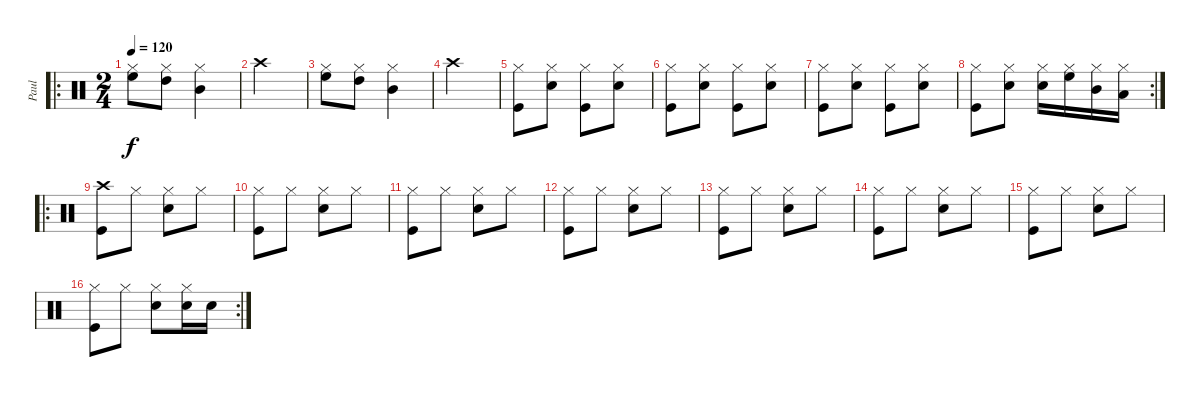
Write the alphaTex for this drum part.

\track ("Paul" "Paul") {instrument percussion}
\staff {score}
\articulation defaults
\ro
\ts (2 4)
\tempo 120
\clef neutral
\ks c
("Hi-Hat (closed)" "High Floor Tom (hit)").8{dy f} ("Hi-Hat (closed)" "High Tom (hit)").8 ("Hi-Hat (closed)" "Mid Tom (hit)").4 |
"Crash high (hit)".2 |
("Hi-Hat (closed)" "High Floor Tom (hit)").8 ("Hi-Hat (closed)" "High Tom (hit)").8 ("Hi-Hat (closed)" "Mid Tom (hit)").4 |
"Crash high (hit)".2 |
("Hi-Hat (closed)" "Kick (hit)").8 ("Hi-Hat (closed)" "Snare (hit) 2").8 ("Hi-Hat (closed)" "Kick (hit)").8 ("Hi-Hat (closed)" "Snare (hit) 2").8 |
("Hi-Hat (closed)" "Kick (hit)").8 ("Hi-Hat (closed)" "Snare (hit) 2").8 ("Hi-Hat (closed)" "Kick (hit)").8 ("Hi-Hat (closed)" "Snare (hit) 2").8 |
("Hi-Hat (closed)" "Kick (hit)").8 ("Hi-Hat (closed)" "Snare (hit) 2").8 ("Hi-Hat (closed)" "Kick (hit)").8 ("Hi-Hat (closed)" "Snare (hit) 2").8 |
\rc 2
("Hi-Hat (closed)" "Kick (hit)").8 ("Hi-Hat (closed)" "Snare (hit) 2").8 ("Hi-Hat (closed)" "Snare (hit) 2").16 ("Hi-Hat (closed)" "High Floor Tom (hit)").16 ("Hi-Hat (closed)" "Mid Tom (hit)").16 ("Hi-Hat (closed)" "Low Tom (hit)").16 |
\ro
("Crash high (hit)" "Kick (hit)").8 "Hi-Hat (closed)".8 ("Hi-Hat (closed)" "Snare (hit) 2").8 "Hi-Hat (closed)".8 |
("Hi-Hat (closed)" "Kick (hit)").8 "Hi-Hat (closed)".8 ("Hi-Hat (closed)" "Snare (hit) 2").8 "Hi-Hat (closed)".8 |
("Hi-Hat (closed)" "Kick (hit)").8 "Hi-Hat (closed)".8 ("Hi-Hat (closed)" "Snare (hit) 2").8 "Hi-Hat (closed)".8 |
("Hi-Hat (closed)" "Kick (hit)").8 "Hi-Hat (closed)".8 ("Hi-Hat (closed)" "Snare (hit) 2").8 "Hi-Hat (closed)".8 |
("Hi-Hat (closed)" "Kick (hit)").8 "Hi-Hat (closed)".8 ("Hi-Hat (closed)" "Snare (hit) 2").8 "Hi-Hat (closed)".8 |
("Hi-Hat (closed)" "Kick (hit)").8 "Hi-Hat (closed)".8 ("Hi-Hat (closed)" "Snare (hit) 2").8 "Hi-Hat (closed)".8 |
("Hi-Hat (closed)" "Kick (hit)").8 "Hi-Hat (closed)".8 ("Hi-Hat (closed)" "Snare (hit) 2").8 "Hi-Hat (closed)".8 |
\rc 2
("Hi-Hat (closed)" "Kick (hit)").8 "Hi-Hat (closed)".8 ("Hi-Hat (closed)" "Snare (hit) 2").8 ("Hi-Hat (closed)" "Snare (hit) 2").16 "Snare (hit) 2".16
